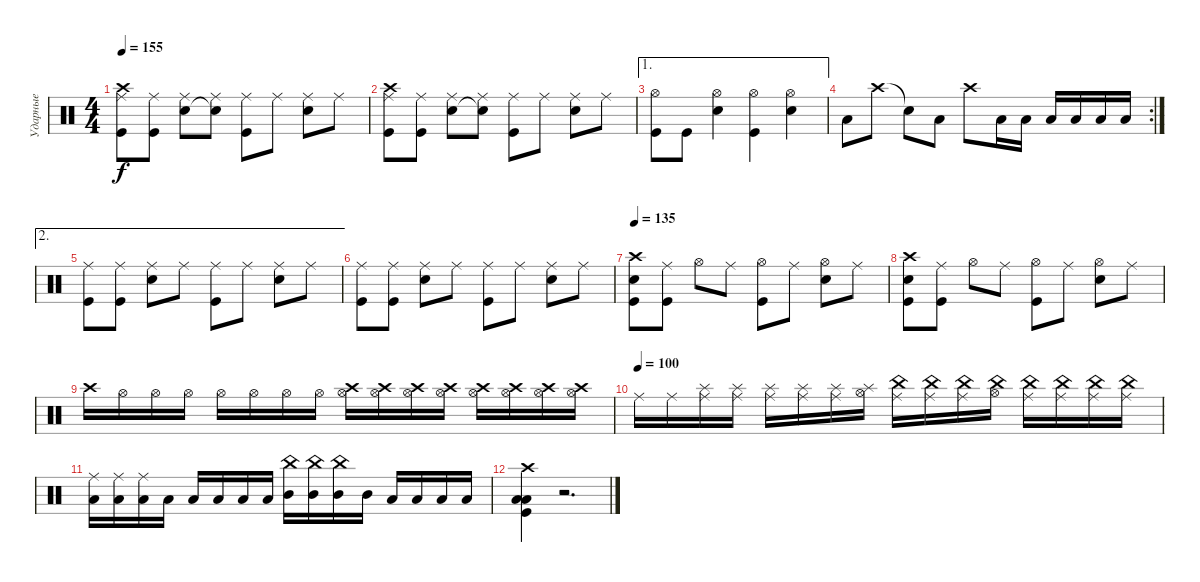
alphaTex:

\track ("Ударные" "Ударные") {instrument percussion}
\staff {score}
\articulation defaults
\ts (4 4)
\tempo 155
\clef neutral
\ks c
("Ride (middle)" "Crash high (hit)" "Kick (hit)").8{dy f} ("Ride (middle)" "Kick (hit)").8 ("Ride (middle)" "Snare (hit) 2").8 ("Ride (middle)" "Snare (hit)"{t}).8 ("Ride (middle)" "Kick (hit)").8 "Ride (middle)".8 ("Ride (middle)" "Snare (hit) 2").8 "Ride (middle)".8 |
("Ride (middle)" "Crash high (hit)" "Kick (hit)").8 ("Ride (middle)" "Kick (hit)").8 ("Ride (middle)" "Snare (hit) 2").8 ("Ride (middle)" "Snare (hit)"{t}).8 ("Ride (middle)" "Kick (hit)").8 "Ride (middle)".8 ("Ride (middle)" "Snare (hit) 2").8 "Ride (middle)".8 |
\ae 1
("Hi-Hat (open)" "Kick (hit)").8 "Kick (hit)".8 ("Hi-Hat (open)" "Snare (hit) 2").4 ("Hi-Hat (open)" "Kick (hit)").4 ("Hi-Hat (open)" "Snare (hit) 2").4 |
\rc 2 "Low Tom (hit)".8 "Crash high (hit)".8 "Snare (hit)"{t}.8 "Low Tom (hit)".8 "Crash high (hit)".8 "Low Tom (hit)".16 "Low Tom (hit)".16 "Low Tom (hit)".16 "Low Tom (hit)".16 "Low Tom (hit)".16 "Low Tom (hit)".16
|
\ae 2
("Ride (middle)" "Kick (hit)").8 ("Ride (middle)" "Kick (hit)").8 ("Ride (middle)" "Snare (hit) 2").8 "Ride (middle)".8 ("Ride (middle)" "Kick (hit)").8 "Ride (middle)".8 ("Ride (middle)" "Snare (hit) 2").8 "Ride (middle)".8 |
("Ride (middle)" "Kick (hit)").8 ("Ride (middle)" "Kick (hit)").8 ("Ride (middle)" "Snare (hit) 2").8 "Ride (middle)".8 ("Ride (middle)" "Kick (hit)").8 "Ride (middle)".8 ("Ride (middle)" "Snare (hit) 2").8 "Ride (middle)".8 |
\tempo 135
("Crash high (hit)" "Snare (hit) 2" "Kick (hit)").8 ("Ride (middle)" "Kick (hit)").8 "Hi-Hat (open)".8 "Ride (middle)".8 ("Hi-Hat (open)" "Kick (hit)").8 "Ride (middle)".8 ("Hi-Hat (open)" "Snare (hit) 2").8 "Ride (middle)".8 |
("Crash high (hit)" "Snare (hit) 2" "Kick (hit)").8 ("Ride (middle)" "Kick (hit)").8 "Hi-Hat (open)".8 "Ride (middle)".8 ("Hi-Hat (open)" "Kick (hit)").8 "Ride (middle)".8 ("Hi-Hat (open)" "Snare (hit) 2").8 "Ride (middle)".8 |
"Crash high (hit)".16 "Hi-Hat (open)".16 "Hi-Hat (open)".16 "Hi-Hat (open)".16 "Hi-Hat (open)".16 "Hi-Hat (open)".16 "Hi-Hat (open)".16 "Hi-Hat (open)".16 ("Crash high (hit)" "Hi-Hat (open)").16 ("Crash high (hit)" "Hi-Hat (open)").16 ("Crash high (hit)" "Hi-Hat (open)").16 ("Crash high (hit)" "Hi-Hat (open)").16 ("Crash high (hit)" "Hi-Hat (open)").16 ("Crash high (hit)" "Hi-Hat (open)").16 ("Crash high (hit)" "Hi-Hat (open)").16 ("Crash high (hit)" "Hi-Hat (open)").16 |
\tempo (100)
"Ride (middle)".16 "Ride (middle)".16 ("Splash (hit)" "Ride (middle)").16 ("Splash (hit)" "Ride (middle)").16 ("Splash (hit)" "Ride (middle)").16 ("Splash (hit)" "Ride (middle)").16 ("Splash (hit)" "Ride (middle)").16 ("Splash (hit)" "Hi-Hat (open)").16 ("China (hit)" "Ride (middle)").16 ("China (hit)" "Ride (middle)").16 ("China (hit)" "Ride (middle)").16 ("China (hit)" "Hi-Hat (open)").16 ("China (hit)" "Ride (middle)").16 ("China (hit)" "Ride (middle)").16 ("China (hit)" "Ride (middle)").16 ("China (hit)" "Ride (middle)").16 |
("Ride (middle)" "Low Tom (hit)").16 ("Ride (middle)" "Low Tom (hit)").16 ("Ride (middle)" "Low Tom (hit)").16 "Low Tom (hit)".16 "Low Floor Tom (hit)".16 "Low Floor Tom (hit)".16 "Low Floor Tom (hit)".16 "Low Floor Tom (hit)".16 ("China (hit)" "Mid Tom (hit)").16 ("China (hit)" "Mid Tom (hit)").16 ("China (hit)" "Mid Tom (hit)").16 "Mid Tom (hit)".16 "Low Tom (hit)".16 "Low Tom (hit)".16 "Low Tom (hit)".16 "Low Tom (hit)".16 |
("Crash high (hit)" "Low Floor Tom (hit)" "Low Tom (hit)" "Kick (hit)").4 r.2{d}
